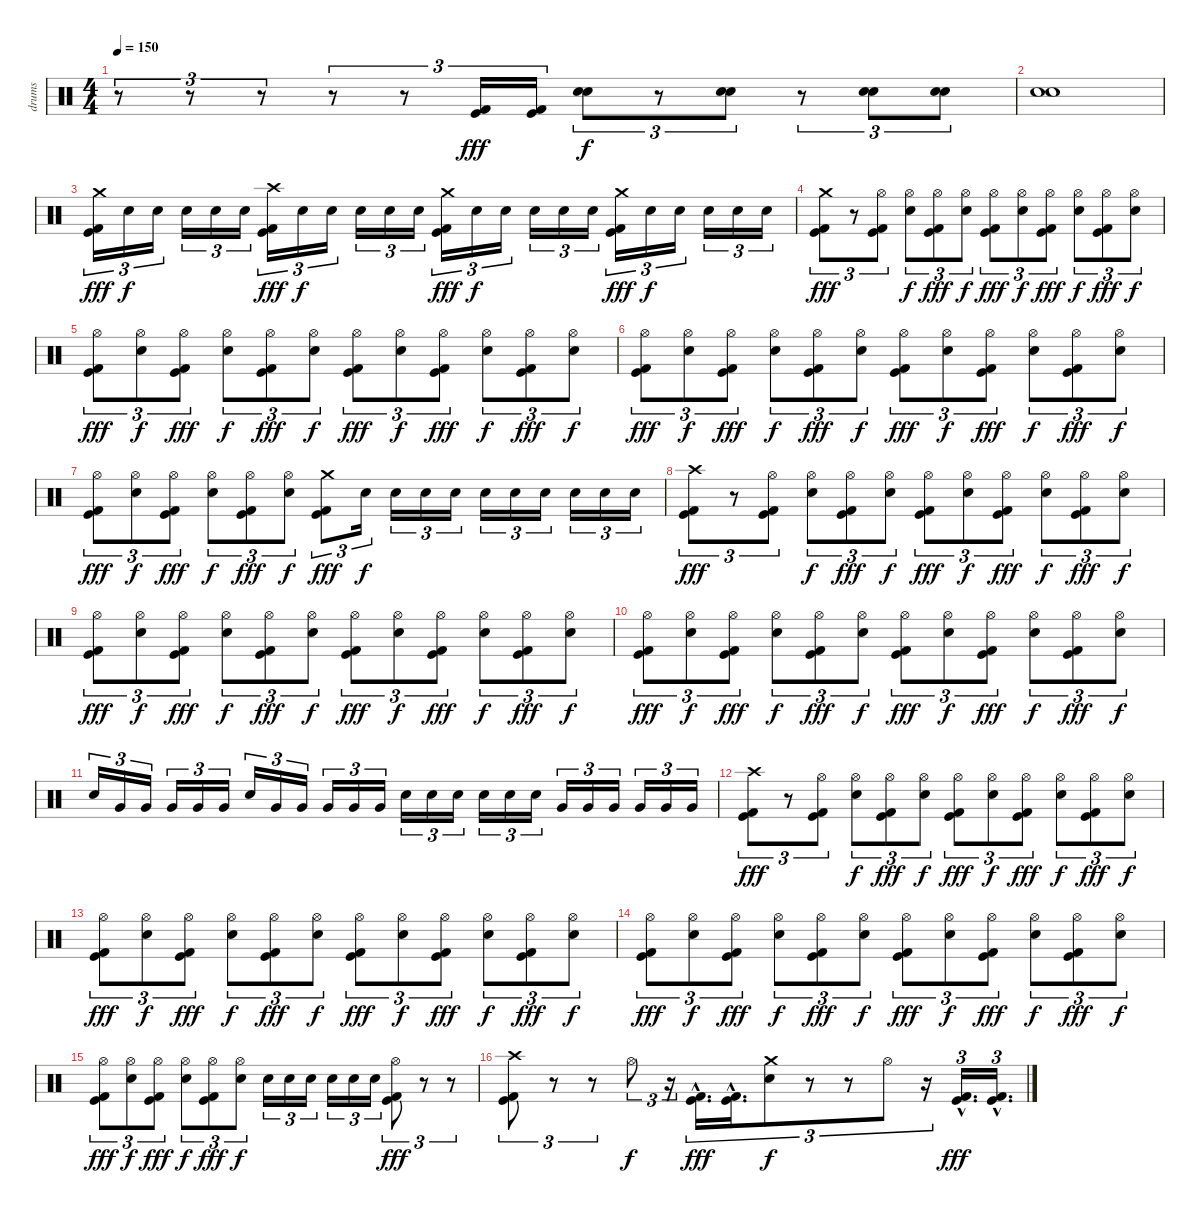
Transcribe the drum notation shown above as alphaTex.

\track ("drums" "drums") {instrument percussion}
\staff {score}
\articulation defaults
\ts (4 4)
\tempo 150
\clef neutral
\ks c
r.8{tu (3 2) dy f} r.8{tu (3 2)} r.8{tu (3 2)} r.8{tu (3 2)} r.8{tu (3 2)} ("Kick (hit)" "Kick (hit) 2").16{tu (3 2) dy fff} ("Kick (hit)" "Kick (hit) 2").16{tu (3 2)} ("Electric Snare (hit)" "Electric Snare (hit)").8{tu (3 2) dy f} r.8{tu (3 2)} ("Electric Snare (hit)" "Electric Snare (hit)").8{tu (3 2)} r.8{tu (3 2)} ("Electric Snare (hit)" "Electric Snare (hit)").8{tu (3 2)} ("Electric Snare (hit)" "Electric Snare (hit)").8{tu (3 2)} |
("Electric Snare (hit)" "Electric Snare (hit)").1 |
("Crash medium (hit)" "Kick (hit)" "Kick (hit) 2").16{tu (3 2) dy fff} "Electric Snare (hit)".16{tu (3 2) dy f} "Electric Snare (hit)".16{tu (3 2)} "Electric Snare (hit)".16{tu (3 2)} "Electric Snare (hit)".16{tu (3 2)} "Electric Snare (hit)".16{tu (3 2)} ("Crash high (hit)" "Kick (hit)" "Kick (hit) 2").16{tu (3 2) dy fff} "Electric Snare (hit)".16{tu (3 2) dy f} "Electric Snare (hit)".16{tu (3 2)} "Electric Snare (hit)".16{tu (3 2)} "Electric Snare (hit)".16{tu (3 2)} "Electric Snare (hit)".16{tu (3 2)} ("Crash medium (hit)" "Kick (hit)" "Kick (hit) 2").16{tu (3 2) dy fff} "Electric Snare (hit)".16{tu (3 2) dy f} "Electric Snare (hit)".16{tu (3 2)} "Electric Snare (hit)".16{tu (3 2)} "Electric Snare (hit)".16{tu (3 2)} "Electric Snare (hit)".16{tu (3 2)} ("Crash medium (hit)" "Kick (hit)" "Kick (hit) 2").16{tu (3 2) dy fff} "Electric Snare (hit)".16{tu (3 2) dy f} "Electric Snare (hit)".16{tu (3 2)} "Electric Snare (hit)".16{tu (3 2)} "Electric Snare (hit)".16{tu (3 2)} "Electric Snare (hit)".16{tu (3 2)} |
("Crash medium (hit)" "Kick (hit)" "Kick (hit) 2").8{tu (3 2) dy fff} r.8{tu (3 2)} ("Hi-Hat (open)" "Kick (hit)" "Kick (hit) 2").8{tu (3 2)} ("Hi-Hat (open)" "Electric Snare (hit)").8{tu (3 2) dy f} ("Hi-Hat (open)" "Kick (hit)" "Kick (hit) 2").8{tu (3 2) dy fff} ("Hi-Hat (open)" "Electric Snare (hit)").8{tu (3 2) dy f} ("Hi-Hat (open)" "Kick (hit)" "Kick (hit) 2").8{tu (3 2) dy fff} ("Hi-Hat (open)" "Electric Snare (hit)").8{tu (3 2) dy f} ("Hi-Hat (open)" "Kick (hit)" "Kick (hit) 2").8{tu (3 2) dy fff} ("Hi-Hat (open)" "Electric Snare (hit)").8{tu (3 2) dy f} ("Hi-Hat (open)" "Kick (hit)" "Kick (hit) 2").8{tu (3 2) dy fff} ("Hi-Hat (open)" "Electric Snare (hit)").8{tu (3 2) dy f} |
("Hi-Hat (open)" "Kick (hit)" "Kick (hit) 2").8{tu (3 2) dy fff} ("Hi-Hat (open)" "Electric Snare (hit)").8{tu (3 2) dy f} ("Hi-Hat (open)" "Kick (hit)" "Kick (hit) 2").8{tu (3 2) dy fff} ("Hi-Hat (open)" "Electric Snare (hit)").8{tu (3 2) dy f} ("Hi-Hat (open)" "Kick (hit)" "Kick (hit) 2").8{tu (3 2) dy fff} ("Hi-Hat (open)" "Electric Snare (hit)").8{tu (3 2) dy f} ("Hi-Hat (open)" "Kick (hit)" "Kick (hit) 2").8{tu (3 2) dy fff} ("Hi-Hat (open)" "Electric Snare (hit)").8{tu (3 2) dy f} ("Hi-Hat (open)" "Kick (hit)" "Kick (hit) 2").8{tu (3 2) dy fff} ("Hi-Hat (open)" "Electric Snare (hit)").8{tu (3 2) dy f} ("Hi-Hat (open)" "Kick (hit)" "Kick (hit) 2").8{tu (3 2) dy fff} ("Hi-Hat (open)" "Electric Snare (hit)").8{tu (3 2) dy f} |
("Hi-Hat (open)" "Kick (hit)" "Kick (hit) 2").8{tu (3 2) dy fff} ("Hi-Hat (open)" "Electric Snare (hit)").8{tu (3 2) dy f} ("Hi-Hat (open)" "Kick (hit)" "Kick (hit) 2").8{tu (3 2) dy fff} ("Hi-Hat (open)" "Electric Snare (hit)").8{tu (3 2) dy f} ("Hi-Hat (open)" "Kick (hit)" "Kick (hit) 2").8{tu (3 2) dy fff} ("Hi-Hat (open)" "Electric Snare (hit)").8{tu (3 2) dy f} ("Hi-Hat (open)" "Kick (hit)" "Kick (hit) 2").8{tu (3 2) dy fff} ("Hi-Hat (open)" "Electric Snare (hit)").8{tu (3 2) dy f} ("Hi-Hat (open)" "Kick (hit)" "Kick (hit) 2").8{tu (3 2) dy fff} ("Hi-Hat (open)" "Electric Snare (hit)").8{tu (3 2) dy f} ("Hi-Hat (open)" "Kick (hit)" "Kick (hit) 2").8{tu (3 2) dy fff} ("Hi-Hat (open)" "Electric Snare (hit)").8{tu (3 2) dy f} |
("Hi-Hat (open)" "Kick (hit)" "Kick (hit) 2").8{tu (3 2) dy fff} ("Hi-Hat (open)" "Electric Snare (hit)").8{tu (3 2) dy f} ("Hi-Hat (open)" "Kick (hit)" "Kick (hit) 2").8{tu (3 2) dy fff} ("Hi-Hat (open)" "Electric Snare (hit)").8{tu (3 2) dy f} ("Hi-Hat (open)" "Kick (hit)" "Kick (hit) 2").8{tu (3 2) dy fff} ("Hi-Hat (open)" "Electric Snare (hit)").8{tu (3 2) dy f} ("Crash medium (hit)" "Kick (hit)" "Kick (hit) 2").8{tu (3 2) dy fff} "Electric Snare (hit)".16{tu (3 2) dy f} "Electric Snare (hit)".16{tu (3 2)} "Electric Snare (hit)".16{tu (3 2)} "Electric Snare (hit)".16{tu (3 2)} "Electric Snare (hit)".16{tu (3 2)} "Electric Snare (hit)".16{tu (3 2)} "Electric Snare (hit)".16{tu (3 2)} "Electric Snare (hit)".16{tu (3 2)} "Electric Snare (hit)".16{tu (3 2)} "Electric Snare (hit)".16{tu (3 2)} |
("Crash high (hit)" "Kick (hit)" "Kick (hit) 2").8{tu (3 2) dy fff} r.8{tu (3 2)} ("Hi-Hat (open)" "Kick (hit)" "Kick (hit) 2").8{tu (3 2)} ("Hi-Hat (open)" "Electric Snare (hit)").8{tu (3 2) dy f} ("Hi-Hat (open)" "Kick (hit)" "Kick (hit) 2").8{tu (3 2) dy fff} ("Hi-Hat (open)" "Electric Snare (hit)").8{tu (3 2) dy f} ("Hi-Hat (open)" "Kick (hit)" "Kick (hit) 2").8{tu (3 2) dy fff} ("Hi-Hat (open)" "Electric Snare (hit)").8{tu (3 2) dy f} ("Hi-Hat (open)" "Kick (hit)" "Kick (hit) 2").8{tu (3 2) dy fff} ("Hi-Hat (open)" "Electric Snare (hit)").8{tu (3 2) dy f} ("Hi-Hat (open)" "Kick (hit)" "Kick (hit) 2").8{tu (3 2) dy fff} ("Hi-Hat (open)" "Electric Snare (hit)").8{tu (3 2) dy f} |
("Hi-Hat (open)" "Kick (hit)" "Kick (hit) 2").8{tu (3 2) dy fff} ("Hi-Hat (open)" "Electric Snare (hit)").8{tu (3 2) dy f} ("Hi-Hat (open)" "Kick (hit)" "Kick (hit) 2").8{tu (3 2) dy fff} ("Hi-Hat (open)" "Electric Snare (hit)").8{tu (3 2) dy f} ("Hi-Hat (open)" "Kick (hit)" "Kick (hit) 2").8{tu (3 2) dy fff} ("Hi-Hat (open)" "Electric Snare (hit)").8{tu (3 2) dy f} ("Hi-Hat (open)" "Kick (hit)" "Kick (hit) 2").8{tu (3 2) dy fff} ("Hi-Hat (open)" "Electric Snare (hit)").8{tu (3 2) dy f} ("Hi-Hat (open)" "Kick (hit)" "Kick (hit) 2").8{tu (3 2) dy fff} ("Hi-Hat (open)" "Electric Snare (hit)").8{tu (3 2) dy f} ("Hi-Hat (open)" "Kick (hit)" "Kick (hit) 2").8{tu (3 2) dy fff} ("Hi-Hat (open)" "Electric Snare (hit)").8{tu (3 2) dy f} |
("Hi-Hat (open)" "Kick (hit)" "Kick (hit) 2").8{tu (3 2) dy fff} ("Hi-Hat (open)" "Electric Snare (hit)").8{tu (3 2) dy f} ("Hi-Hat (open)" "Kick (hit)" "Kick (hit) 2").8{tu (3 2) dy fff} ("Hi-Hat (open)" "Electric Snare (hit)").8{tu (3 2) dy f} ("Hi-Hat (open)" "Kick (hit)" "Kick (hit) 2").8{tu (3 2) dy fff} ("Hi-Hat (open)" "Electric Snare (hit)").8{tu (3 2) dy f} ("Hi-Hat (open)" "Kick (hit)" "Kick (hit) 2").8{tu (3 2) dy fff} ("Hi-Hat (open)" "Electric Snare (hit)").8{tu (3 2) dy f} ("Hi-Hat (open)" "Kick (hit)" "Kick (hit) 2").8{tu (3 2) dy fff} ("Hi-Hat (open)" "Electric Snare (hit)").8{tu (3 2) dy f} ("Hi-Hat (open)" "Kick (hit)" "Kick (hit) 2").8{tu (3 2) dy fff} ("Hi-Hat (open)" "Electric Snare (hit)").8{tu (3 2) dy f} |
"Electric Snare (hit)".16{tu (3 2)} "Very Low Tom (hit)".16{tu (3 2)} "Very Low Tom (hit)".16{tu (3 2)} "Very Low Tom (hit)".16{tu (3 2)} "Very Low Tom (hit)".16{tu (3 2)} "Very Low Tom (hit)".16{tu (3 2)} "Electric Snare (hit)".16{tu (3 2)} "Very Low Tom (hit)".16{tu (3 2)} "Very Low Tom (hit)".16{tu (3 2)} "Very Low Tom (hit)".16{tu (3 2)} "Very Low Tom (hit)".16{tu (3 2)} "Very Low Tom (hit)".16{tu (3 2)} "Electric Snare (hit)".16{tu (3 2)} "Electric Snare (hit)".16{tu (3 2)} "Electric Snare (hit)".16{tu (3 2)} "Electric Snare (hit)".16{tu (3 2)} "Electric Snare (hit)".16{tu (3 2)} "Electric Snare (hit)".16{tu (3 2)} "Very Low Tom (hit)".16{tu (3 2)} "Very Low Tom (hit)".16{tu (3 2)} "Very Low Tom (hit)".16{tu (3 2)} "Very Low Tom (hit)".16{tu (3 2)} "Very Low Tom (hit)".16{tu (3 2)} "Very Low Tom (hit)".16{tu (3 2)} |
("Crash high (hit)" "Kick (hit)" "Kick (hit) 2").8{tu (3 2) dy fff} r.8{tu (3 2)} ("Hi-Hat (open)" "Kick (hit)" "Kick (hit) 2").8{tu (3 2)} ("Hi-Hat (open)" "Electric Snare (hit)").8{tu (3 2) dy f} ("Hi-Hat (open)" "Kick (hit)" "Kick (hit) 2").8{tu (3 2) dy fff} ("Hi-Hat (open)" "Electric Snare (hit)").8{tu (3 2) dy f} ("Hi-Hat (open)" "Kick (hit)" "Kick (hit) 2").8{tu (3 2) dy fff} ("Hi-Hat (open)" "Electric Snare (hit)").8{tu (3 2) dy f} ("Hi-Hat (open)" "Kick (hit)" "Kick (hit) 2").8{tu (3 2) dy fff} ("Hi-Hat (open)" "Electric Snare (hit)").8{tu (3 2) dy f} ("Hi-Hat (open)" "Kick (hit)" "Kick (hit) 2").8{tu (3 2) dy fff} ("Hi-Hat (open)" "Electric Snare (hit)").8{tu (3 2) dy f} |
("Hi-Hat (open)" "Kick (hit)" "Kick (hit) 2").8{tu (3 2) dy fff} ("Hi-Hat (open)" "Electric Snare (hit)").8{tu (3 2) dy f} ("Hi-Hat (open)" "Kick (hit)" "Kick (hit) 2").8{tu (3 2) dy fff} ("Hi-Hat (open)" "Electric Snare (hit)").8{tu (3 2) dy f} ("Hi-Hat (open)" "Kick (hit)" "Kick (hit) 2").8{tu (3 2) dy fff} ("Hi-Hat (open)" "Electric Snare (hit)").8{tu (3 2) dy f} ("Hi-Hat (open)" "Kick (hit)" "Kick (hit) 2").8{tu (3 2) dy fff} ("Hi-Hat (open)" "Electric Snare (hit)").8{tu (3 2) dy f} ("Hi-Hat (open)" "Kick (hit)" "Kick (hit) 2").8{tu (3 2) dy fff} ("Hi-Hat (open)" "Electric Snare (hit)").8{tu (3 2) dy f} ("Hi-Hat (open)" "Kick (hit)" "Kick (hit) 2").8{tu (3 2) dy fff} ("Hi-Hat (open)" "Electric Snare (hit)").8{tu (3 2) dy f} |
("Hi-Hat (open)" "Kick (hit)" "Kick (hit) 2").8{tu (3 2) dy fff} ("Hi-Hat (open)" "Electric Snare (hit)").8{tu (3 2) dy f} ("Hi-Hat (open)" "Kick (hit)" "Kick (hit) 2").8{tu (3 2) dy fff} ("Hi-Hat (open)" "Electric Snare (hit)").8{tu (3 2) dy f} ("Hi-Hat (open)" "Kick (hit)" "Kick (hit) 2").8{tu (3 2) dy fff} ("Hi-Hat (open)" "Electric Snare (hit)").8{tu (3 2) dy f} ("Hi-Hat (open)" "Kick (hit)" "Kick (hit) 2").8{tu (3 2) dy fff} ("Hi-Hat (open)" "Electric Snare (hit)").8{tu (3 2) dy f} ("Hi-Hat (open)" "Kick (hit)" "Kick (hit) 2").8{tu (3 2) dy fff} ("Hi-Hat (open)" "Electric Snare (hit)").8{tu (3 2) dy f} ("Hi-Hat (open)" "Kick (hit)" "Kick (hit) 2").8{tu (3 2) dy fff} ("Hi-Hat (open)" "Electric Snare (hit)").8{tu (3 2) dy f} |
("Hi-Hat (open)" "Kick (hit)" "Kick (hit) 2").8{tu (3 2) dy fff} ("Hi-Hat (open)" "Electric Snare (hit)").8{tu (3 2) dy f} ("Hi-Hat (open)" "Kick (hit)" "Kick (hit) 2").8{tu (3 2) dy fff} ("Hi-Hat (open)" "Electric Snare (hit)").8{tu (3 2) dy f} ("Hi-Hat (open)" "Kick (hit)" "Kick (hit) 2").8{tu (3 2) dy fff} ("Hi-Hat (open)" "Electric Snare (hit)").8{tu (3 2) dy f} "Electric Snare (hit)".16{tu (3 2)} "Electric Snare (hit)".16{tu (3 2)} "Electric Snare (hit)".16{tu (3 2)} "Electric Snare (hit)".16{tu (3 2)} "Electric Snare (hit)".16{tu (3 2)} "Electric Snare (hit)".16{tu (3 2)} ("Hi-Hat (open)" "Kick (hit)" "Kick (hit) 2").8{tu (3 2) dy fff} r.8{tu (3 2)} r.8{tu (3 2)} |
("Crash high (hit)" "Kick (hit)" "Kick (hit) 2").8{tu (3 2)} r.8{tu (3 2)} r.8{tu (3 2)} "Hi-Hat (open)".8{tu (3 2) dy f} r.16{tu (3 2)} ("Kick (hit)"{hac} "Kick (hit) 2"{hac}).16{d tu (3 2) dy fff} ("Kick (hit)"{hac} "Kick (hit) 2"{hac}).16{d tu (3 2)} ("Crash medium (hit)" "Electric Snare (hit)").8{tu (3 2) dy f} r.8{tu (3 2)} r.8{tu (3 2)} "Hi-Hat (open)".8{tu (3 2)} r.16{tu (3 2)} ("Kick (hit)"{hac} "Kick (hit) 2"{hac}).16{d tu (3 2) dy fff} ("Kick (hit)"{hac} "Kick (hit) 2"{hac}).16{d tu (3 2)}
